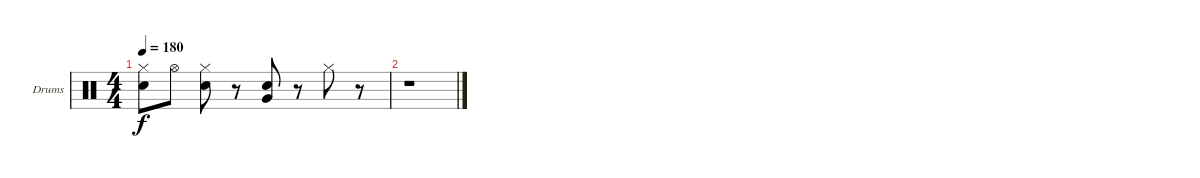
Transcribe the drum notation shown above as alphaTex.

\bracketExtendMode groupsimilarinstruments
\firstSystemTrackNameOrientation horizontal
\otherSystemsTrackNameOrientation horizontal
\track ("Drumkit" "Drums") {instrument percussion}
\staff {score}
\articulation defaults
\ts (4 4)
\tempo 180
\clef neutral
\ks c
("Hi-Hat (closed)" "Snare (hit) 2").8{dy f} "Hi-Hat (open)".8 ("Hi-Hat (closed)" "Snare (hit) 2").8 r.8 ("Snare (hit) 2" "Very Low Tom (hit)").8 r.8 "Hi-Hat (closed)".8 r.8 |
r.1
